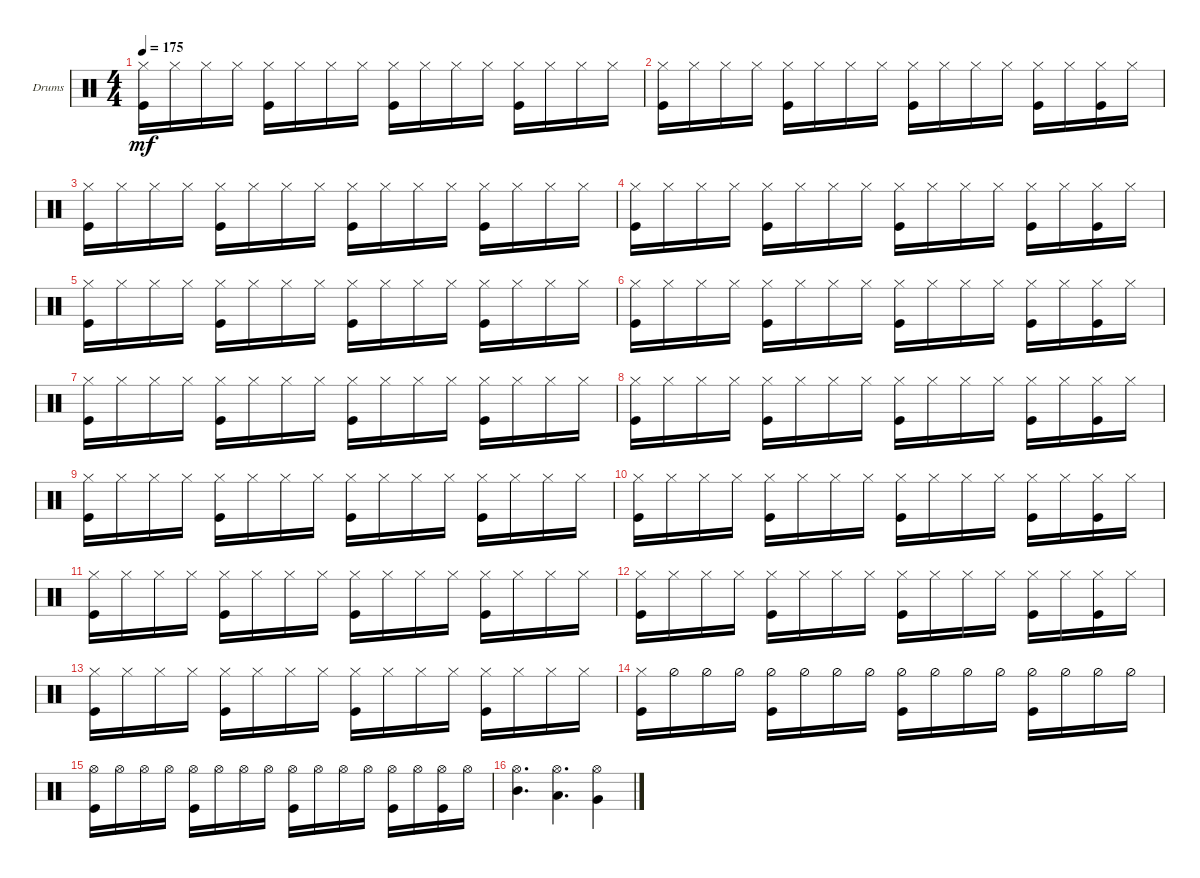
\defaultSystemsLayout 4
\bracketExtendMode groupsimilarinstruments
\firstSystemTrackNameOrientation horizontal
\otherSystemsTrackNameOrientation horizontal
\track ("Drumkit" "Drums") {instrument percussion}
\staff {score}
\articulation defaults
\ts (4 4)
\tempo 175
\clef neutral
\ks c
("Hi-Hat (closed)" "Kick (hit)").16{dy mf} "Hi-Hat (closed)".16 "Hi-Hat (closed)".16 "Hi-Hat (closed)".16 ("Hi-Hat (closed)" "Kick (hit)").16 "Hi-Hat (closed)".16 "Hi-Hat (closed)".16 "Hi-Hat (closed)".16 ("Hi-Hat (closed)" "Kick (hit)").16 "Hi-Hat (closed)".16 "Hi-Hat (closed)".16 "Hi-Hat (closed)".16 ("Hi-Hat (closed)" "Kick (hit)").16 "Hi-Hat (closed)".16 "Hi-Hat (closed)".16 "Hi-Hat (closed)".16 |
("Hi-Hat (closed)" "Kick (hit)").16 "Hi-Hat (closed)".16 "Hi-Hat (closed)".16 "Hi-Hat (closed)".16 ("Hi-Hat (closed)" "Kick (hit)").16 "Hi-Hat (closed)".16 "Hi-Hat (closed)".16 "Hi-Hat (closed)".16 ("Hi-Hat (closed)" "Kick (hit)").16 "Hi-Hat (closed)".16 "Hi-Hat (closed)".16 "Hi-Hat (closed)".16 ("Hi-Hat (closed)" "Kick (hit)").16 "Hi-Hat (closed)".16 ("Hi-Hat (closed)" "Kick (hit)").16 "Hi-Hat (closed)".16 |
("Hi-Hat (closed)" "Kick (hit)").16 "Hi-Hat (closed)".16 "Hi-Hat (closed)".16 "Hi-Hat (closed)".16 ("Hi-Hat (closed)" "Kick (hit)").16 "Hi-Hat (closed)".16 "Hi-Hat (closed)".16 "Hi-Hat (closed)".16 ("Hi-Hat (closed)" "Kick (hit)").16 "Hi-Hat (closed)".16 "Hi-Hat (closed)".16 "Hi-Hat (closed)".16 ("Hi-Hat (closed)" "Kick (hit)").16 "Hi-Hat (closed)".16 "Hi-Hat (closed)".16 "Hi-Hat (closed)".16 |
("Hi-Hat (closed)" "Kick (hit)").16 "Hi-Hat (closed)".16 "Hi-Hat (closed)".16 "Hi-Hat (closed)".16 ("Hi-Hat (closed)" "Kick (hit)").16 "Hi-Hat (closed)".16 "Hi-Hat (closed)".16 "Hi-Hat (closed)".16 ("Hi-Hat (closed)" "Kick (hit)").16 "Hi-Hat (closed)".16 "Hi-Hat (closed)".16 "Hi-Hat (closed)".16 ("Hi-Hat (closed)" "Kick (hit)").16 "Hi-Hat (closed)".16 ("Hi-Hat (closed)" "Kick (hit)").16 "Hi-Hat (closed)".16 |
("Hi-Hat (closed)" "Kick (hit)").16 "Hi-Hat (closed)".16 "Hi-Hat (closed)".16 "Hi-Hat (closed)".16 ("Hi-Hat (closed)" "Kick (hit)").16 "Hi-Hat (closed)".16 "Hi-Hat (closed)".16 "Hi-Hat (closed)".16 ("Hi-Hat (closed)" "Kick (hit)").16 "Hi-Hat (closed)".16 "Hi-Hat (closed)".16 "Hi-Hat (closed)".16 ("Hi-Hat (closed)" "Kick (hit)").16 "Hi-Hat (closed)".16 "Hi-Hat (closed)".16 "Hi-Hat (closed)".16 |
("Hi-Hat (closed)" "Kick (hit)").16 "Hi-Hat (closed)".16 "Hi-Hat (closed)".16 "Hi-Hat (closed)".16 ("Hi-Hat (closed)" "Kick (hit)").16 "Hi-Hat (closed)".16 "Hi-Hat (closed)".16 "Hi-Hat (closed)".16 ("Hi-Hat (closed)" "Kick (hit)").16 "Hi-Hat (closed)".16 "Hi-Hat (closed)".16 "Hi-Hat (closed)".16 ("Hi-Hat (closed)" "Kick (hit)").16 "Hi-Hat (closed)".16 ("Hi-Hat (closed)" "Kick (hit)").16 "Hi-Hat (closed)".16 |
("Hi-Hat (closed)" "Kick (hit)").16 "Hi-Hat (closed)".16 "Hi-Hat (closed)".16 "Hi-Hat (closed)".16 ("Hi-Hat (closed)" "Kick (hit)").16 "Hi-Hat (closed)".16 "Hi-Hat (closed)".16 "Hi-Hat (closed)".16 ("Hi-Hat (closed)" "Kick (hit)").16 "Hi-Hat (closed)".16 "Hi-Hat (closed)".16 "Hi-Hat (closed)".16 ("Hi-Hat (closed)" "Kick (hit)").16 "Hi-Hat (closed)".16 "Hi-Hat (closed)".16 "Hi-Hat (closed)".16 |
("Hi-Hat (closed)" "Kick (hit)").16 "Hi-Hat (closed)".16 "Hi-Hat (closed)".16 "Hi-Hat (closed)".16 ("Hi-Hat (closed)" "Kick (hit)").16 "Hi-Hat (closed)".16 "Hi-Hat (closed)".16 "Hi-Hat (closed)".16 ("Hi-Hat (closed)" "Kick (hit)").16 "Hi-Hat (closed)".16 "Hi-Hat (closed)".16 "Hi-Hat (closed)".16 ("Hi-Hat (closed)" "Kick (hit)").16 "Hi-Hat (closed)".16 ("Hi-Hat (closed)" "Kick (hit)").16 "Hi-Hat (closed)".16 |
("Hi-Hat (closed)" "Kick (hit)").16 "Hi-Hat (closed)".16 "Hi-Hat (closed)".16 "Hi-Hat (closed)".16 ("Hi-Hat (closed)" "Kick (hit)").16 "Hi-Hat (closed)".16 "Hi-Hat (closed)".16 "Hi-Hat (closed)".16 ("Hi-Hat (closed)" "Kick (hit)").16 "Hi-Hat (closed)".16 "Hi-Hat (closed)".16 "Hi-Hat (closed)".16 ("Hi-Hat (closed)" "Kick (hit)").16 "Hi-Hat (closed)".16 "Hi-Hat (closed)".16 "Hi-Hat (closed)".16 |
("Hi-Hat (closed)" "Kick (hit)").16 "Hi-Hat (closed)".16 "Hi-Hat (closed)".16 "Hi-Hat (closed)".16 ("Hi-Hat (closed)" "Kick (hit)").16 "Hi-Hat (closed)".16 "Hi-Hat (closed)".16 "Hi-Hat (closed)".16 ("Hi-Hat (closed)" "Kick (hit)").16 "Hi-Hat (closed)".16 "Hi-Hat (closed)".16 "Hi-Hat (closed)".16 ("Hi-Hat (closed)" "Kick (hit)").16 "Hi-Hat (closed)".16 ("Hi-Hat (closed)" "Kick (hit)").16 "Hi-Hat (closed)".16 |
("Hi-Hat (closed)" "Kick (hit)").16 "Hi-Hat (closed)".16 "Hi-Hat (closed)".16 "Hi-Hat (closed)".16 ("Hi-Hat (closed)" "Kick (hit)").16 "Hi-Hat (closed)".16 "Hi-Hat (closed)".16 "Hi-Hat (closed)".16 ("Hi-Hat (closed)" "Kick (hit)").16 "Hi-Hat (closed)".16 "Hi-Hat (closed)".16 "Hi-Hat (closed)".16 ("Hi-Hat (closed)" "Kick (hit)").16 "Hi-Hat (closed)".16 "Hi-Hat (closed)".16 "Hi-Hat (closed)".16 |
("Hi-Hat (closed)" "Kick (hit)").16 "Hi-Hat (closed)".16 "Hi-Hat (closed)".16 "Hi-Hat (closed)".16 ("Hi-Hat (closed)" "Kick (hit)").16 "Hi-Hat (closed)".16 "Hi-Hat (closed)".16 "Hi-Hat (closed)".16 ("Hi-Hat (closed)" "Kick (hit)").16 "Hi-Hat (closed)".16 "Hi-Hat (closed)".16 "Hi-Hat (closed)".16 ("Hi-Hat (closed)" "Kick (hit)").16 "Hi-Hat (closed)".16 ("Hi-Hat (closed)" "Kick (hit)").16 "Hi-Hat (closed)".16 |
("Hi-Hat (closed)" "Kick (hit)").16 "Hi-Hat (closed)".16 "Hi-Hat (closed)".16 "Hi-Hat (closed)".16 ("Hi-Hat (closed)" "Kick (hit)").16 "Hi-Hat (closed)".16 "Hi-Hat (closed)".16 "Hi-Hat (closed)".16 ("Hi-Hat (closed)" "Kick (hit)").16 "Hi-Hat (closed)".16 "Hi-Hat (closed)".16 "Hi-Hat (closed)".16 ("Hi-Hat (closed)" "Kick (hit)").16 "Hi-Hat (closed)".16 "Hi-Hat (closed)".16 "Hi-Hat (closed)".16 |
("Hi-Hat (closed)" "Kick (hit)").16 "Hi-Hat (half)".16 "Hi-Hat (half)".16 "Hi-Hat (half)".16 ("Hi-Hat (half)" "Kick (hit)").16 "Hi-Hat (half)".16 "Hi-Hat (half)".16 "Hi-Hat (half)".16 ("Hi-Hat (half)" "Kick (hit)").16 "Hi-Hat (half)".16 "Hi-Hat (half)".16 "Hi-Hat (half)".16 ("Hi-Hat (half)" "Kick (hit)").16 "Hi-Hat (half)".16 "Hi-Hat (half)".16 "Hi-Hat (half)".16 |
("Hi-Hat (open)" "Kick (hit)").16 "Hi-Hat (open)".16 "Hi-Hat (open)".16 "Hi-Hat (open)".16 ("Hi-Hat (open)" "Kick (hit)").16 "Hi-Hat (open)".16 "Hi-Hat (open)".16 "Hi-Hat (open)".16 ("Hi-Hat (open)" "Kick (hit)").16 "Hi-Hat (open)".16 "Hi-Hat (open)".16 "Hi-Hat (open)".16 ("Hi-Hat (open)" "Kick (hit)").16 "Hi-Hat (open)".16 ("Hi-Hat (open)" "Kick (hit)").16 "Hi-Hat (open)".16 |
("Mid Tom (hit)" "Hi-Hat (open)").4{d} ("Low Tom (hit)" "Hi-Hat (open)").4{d} ("Very Low Tom (hit)" "Hi-Hat (open)").4
